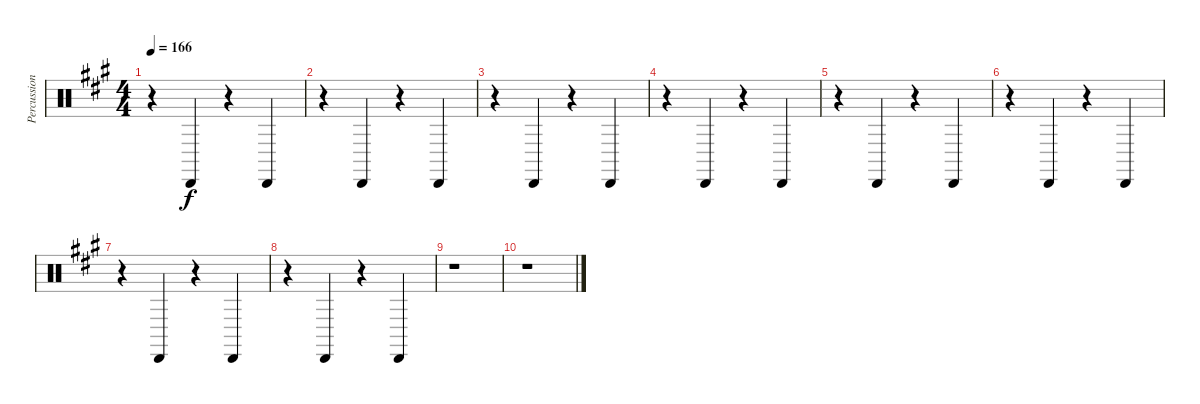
\track ("Percussion IV" "Percussion") {instrument percussion}
\staff {score}
\articulation defaults
\ts (4 4)
\tempo 166
\clef neutral
\ks a
r.4{dy f} "Cabasa (hit)".4 r.4 "Cabasa (hit)".4 |
r.4 "Cabasa (hit)".4 r.4 "Cabasa (hit)".4 |
r.4 "Cabasa (hit)".4 r.4 "Cabasa (hit)".4 |
r.4 "Cabasa (hit)".4 r.4 "Cabasa (hit)".4 |
r.4 "Cabasa (hit)".4 r.4 "Cabasa (hit)".4 |
r.4 "Cabasa (hit)".4 r.4 "Cabasa (hit)".4 |
r.4 "Cabasa (hit)".4 r.4 "Cabasa (hit)".4 |
r.4 "Cabasa (hit)".4 r.4 "Cabasa (hit)".4 |
r.1 |
r.1
